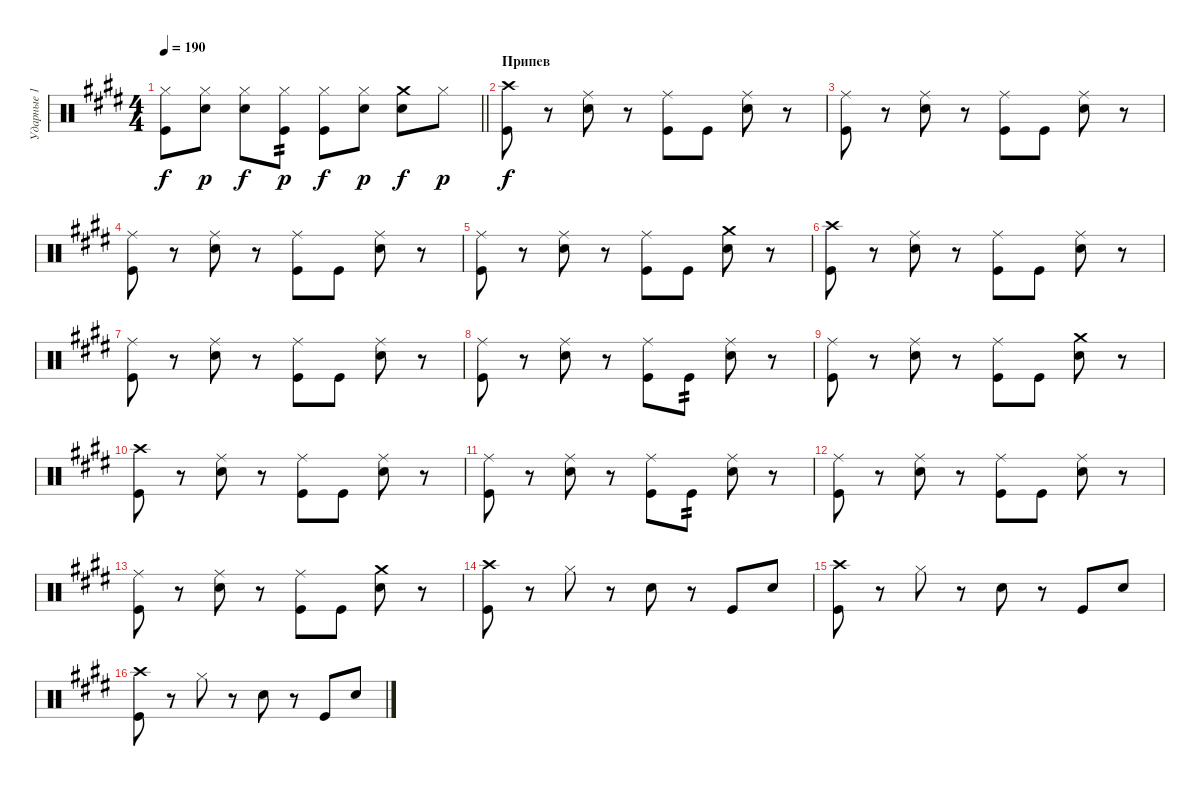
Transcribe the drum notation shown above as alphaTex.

\track ("Ударные 1" "Ударные 1") {instrument percussion}
\staff {score}
\articulation defaults
\ts (4 4)
\tempo 190
\clef neutral
\barLineRight lightlight
\ks c#minor
("Hi-Hat (closed)" "Kick (hit)").8{dy f} ("Hi-Hat (closed)" "Snare (hit) 2").8{dy p} ("Hi-Hat (closed)" "Snare (hit) 2").8{dy f} ("Hi-Hat (closed)" "Kick (hit)").8{tp 2 dy p} ("Hi-Hat (closed)" "Kick (hit)").8{dy f} ("Hi-Hat (closed)" "Snare (hit) 2").8{dy p} ("Crash medium (hit)" "Snare (hit) 2").8{dy f} "Hi-Hat (closed)".8{dy p} |
\section ("" "Припев")
("Crash high (hit)" "Kick (hit)").8{dy f} r.8 ("Ride (middle)" "Snare (hit) 2").8 r.8 ("Ride (middle)" "Kick (hit)").8 "Kick (hit)".8 ("Ride (middle)" "Snare (hit) 2").8 r.8 |
("Ride (middle)" "Kick (hit)").8 r.8 ("Ride (middle)" "Snare (hit) 2").8 r.8 ("Ride (middle)" "Kick (hit)").8 "Kick (hit)".8 ("Ride (middle)" "Snare (hit) 2").8 r.8 |
("Ride (middle)" "Kick (hit)").8 r.8 ("Ride (middle)" "Snare (hit) 2").8 r.8 ("Ride (middle)" "Kick (hit)").8 "Kick (hit)".8 ("Ride (middle)" "Snare (hit) 2").8 r.8 |
("Ride (middle)" "Kick (hit)").8 r.8 ("Ride (middle)" "Snare (hit) 2").8 r.8 ("Ride (middle)" "Kick (hit)").8 "Kick (hit)".8 ("Crash medium (hit)" "Snare (hit) 2").8 r.8 |
("Crash high (hit)" "Kick (hit)").8 r.8 ("Ride (middle)" "Snare (hit) 2").8 r.8 ("Ride (middle)" "Kick (hit)").8 "Kick (hit)".8 ("Ride (middle)" "Snare (hit) 2").8 r.8 |
("Ride (middle)" "Kick (hit)").8 r.8 ("Ride (middle)" "Snare (hit) 2").8 r.8 ("Ride (middle)" "Kick (hit)").8 "Kick (hit)".8 ("Ride (middle)" "Snare (hit) 2").8 r.8 |
("Ride (middle)" "Kick (hit)").8 r.8 ("Ride (middle)" "Snare (hit) 2").8 r.8 ("Ride (middle)" "Kick (hit)").8 "Kick (hit)".8{tp 2} ("Ride (middle)" "Snare (hit) 2").8 r.8 |
("Ride (middle)" "Kick (hit)").8 r.8 ("Ride (middle)" "Snare (hit) 2").8 r.8 ("Ride (middle)" "Kick (hit)").8 "Kick (hit)".8 ("Crash medium (hit)" "Snare (hit) 2").8 r.8 |
("Crash high (hit)" "Kick (hit)").8 r.8 ("Ride (middle)" "Snare (hit) 2").8 r.8 ("Ride (middle)" "Kick (hit)").8 "Kick (hit)".8 ("Ride (middle)" "Snare (hit) 2").8 r.8 |
("Ride (middle)" "Kick (hit)").8 r.8 ("Ride (middle)" "Snare (hit) 2").8 r.8 ("Ride (middle)" "Kick (hit)").8 "Kick (hit)".8{tp 2} ("Ride (middle)" "Snare (hit) 2").8 r.8 |
("Ride (middle)" "Kick (hit)").8 r.8 ("Ride (middle)" "Snare (hit) 2").8 r.8 ("Ride (middle)" "Kick (hit)").8 "Kick (hit)".8 ("Ride (middle)" "Snare (hit) 2").8 r.8 |
("Ride (middle)" "Kick (hit)").8 r.8 ("Ride (middle)" "Snare (hit) 2").8 r.8 ("Ride (middle)" "Kick (hit)").8 "Kick (hit)".8 ("Crash medium (hit)" "Snare (hit) 2").8 r.8 |
("Crash high (hit)" "Kick (hit)").8 r.8 "Hi-Hat (closed)".8 r.8 "Snare (hit) 2".8 r.8 "Kick (hit)".8 "Snare (hit) 2".8 |
("Crash high (hit)" "Kick (hit)").8 r.8 "Hi-Hat (closed)".8 r.8 "Snare (hit) 2".8 r.8 "Kick (hit)".8 "Snare (hit) 2".8 |
("Crash high (hit)" "Kick (hit)").8 r.8 "Hi-Hat (closed)".8 r.8 "Snare (hit) 2".8 r.8 "Kick (hit)".8 "Snare (hit) 2".8
